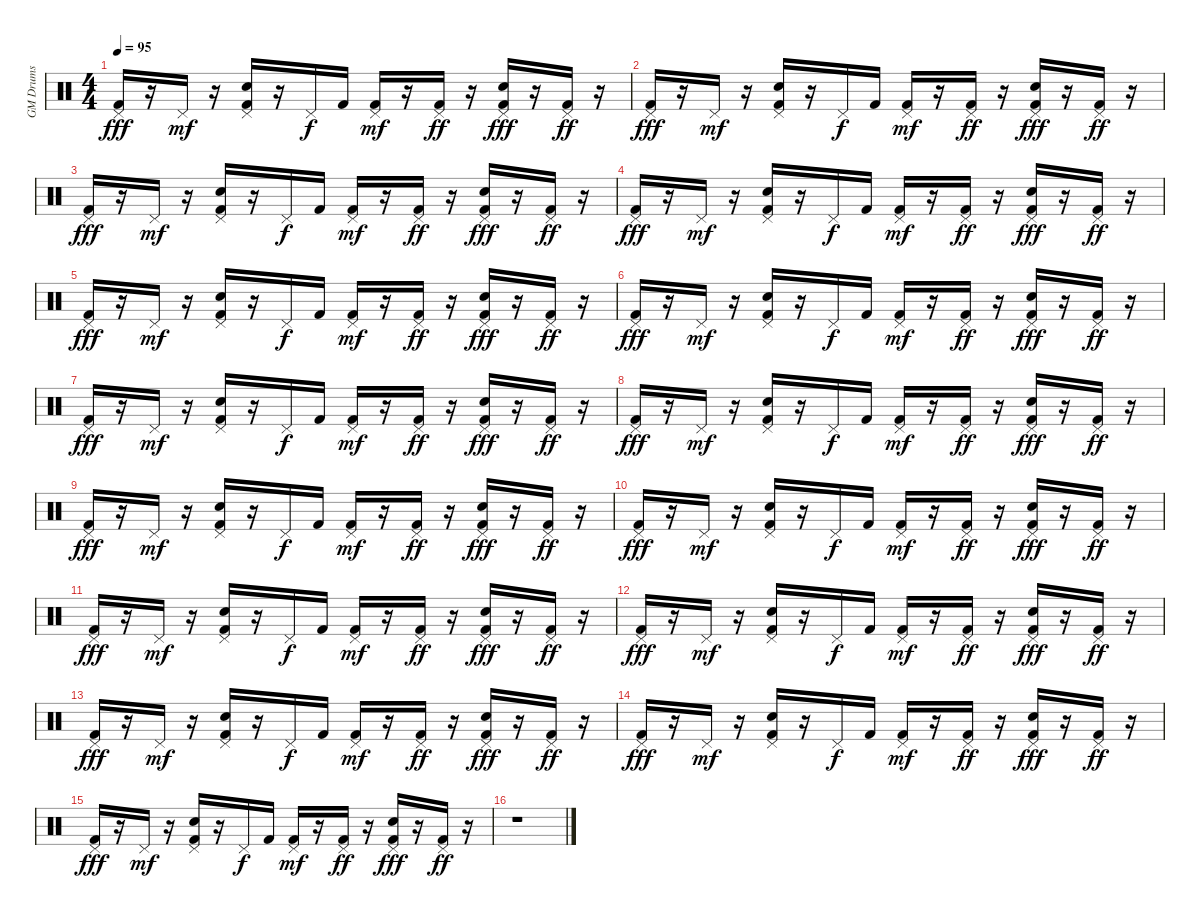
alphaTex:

\track ("GM Drums" "GM Drums") {instrument percussion}
\staff {score}
\articulation defaults
\ts (4 4)
\tempo 95
\clef neutral
\ks c
("Kick (hit) 2" "Pedal Hi-Hat (hit)").16{dy fff} r.16 "Pedal Hi-Hat (hit)".16{dy mf} r.16 ("Kick (hit) 2" "Hand Clap (hit)" "Pedal Hi-Hat (hit)").16 r.16 "Pedal Hi-Hat (hit)".16{dy f} "Kick (hit) 2".16 ("Kick (hit) 2" "Pedal Hi-Hat (hit)").16{dy mf} r.16 ("Kick (hit) 2" "Pedal Hi-Hat (hit)").16{dy ff} r.16 ("Kick (hit) 2" "Hand Clap (hit)" "Pedal Hi-Hat (hit)").16{dy fff} r.16 ("Kick (hit) 2" "Pedal Hi-Hat (hit)").16{dy ff} r.16 |
("Kick (hit) 2" "Pedal Hi-Hat (hit)").16{dy fff} r.16 "Pedal Hi-Hat (hit)".16{dy mf} r.16 ("Kick (hit) 2" "Hand Clap (hit)" "Pedal Hi-Hat (hit)").16 r.16 "Pedal Hi-Hat (hit)".16{dy f} "Kick (hit) 2".16 ("Kick (hit) 2" "Pedal Hi-Hat (hit)").16{dy mf} r.16 ("Kick (hit) 2" "Pedal Hi-Hat (hit)").16{dy ff} r.16 ("Kick (hit) 2" "Hand Clap (hit)" "Pedal Hi-Hat (hit)").16{dy fff} r.16 ("Kick (hit) 2" "Pedal Hi-Hat (hit)").16{dy ff} r.16 |
("Kick (hit) 2" "Pedal Hi-Hat (hit)").16{dy fff} r.16 "Pedal Hi-Hat (hit)".16{dy mf} r.16 ("Kick (hit) 2" "Hand Clap (hit)" "Pedal Hi-Hat (hit)").16 r.16 "Pedal Hi-Hat (hit)".16{dy f} "Kick (hit) 2".16 ("Kick (hit) 2" "Pedal Hi-Hat (hit)").16{dy mf} r.16 ("Kick (hit) 2" "Pedal Hi-Hat (hit)").16{dy ff} r.16 ("Kick (hit) 2" "Hand Clap (hit)" "Pedal Hi-Hat (hit)").16{dy fff} r.16 ("Kick (hit) 2" "Pedal Hi-Hat (hit)").16{dy ff} r.16 |
("Kick (hit) 2" "Pedal Hi-Hat (hit)").16{dy fff} r.16 "Pedal Hi-Hat (hit)".16{dy mf} r.16 ("Kick (hit) 2" "Hand Clap (hit)" "Pedal Hi-Hat (hit)").16 r.16 "Pedal Hi-Hat (hit)".16{dy f} "Kick (hit) 2".16 ("Kick (hit) 2" "Pedal Hi-Hat (hit)").16{dy mf} r.16 ("Kick (hit) 2" "Pedal Hi-Hat (hit)").16{dy ff} r.16 ("Kick (hit) 2" "Hand Clap (hit)" "Pedal Hi-Hat (hit)").16{dy fff} r.16 ("Kick (hit) 2" "Pedal Hi-Hat (hit)").16{dy ff} r.16 |
("Kick (hit) 2" "Pedal Hi-Hat (hit)").16{dy fff} r.16 "Pedal Hi-Hat (hit)".16{dy mf} r.16 ("Kick (hit) 2" "Hand Clap (hit)" "Pedal Hi-Hat (hit)").16 r.16 "Pedal Hi-Hat (hit)".16{dy f} "Kick (hit) 2".16 ("Kick (hit) 2" "Pedal Hi-Hat (hit)").16{dy mf} r.16 ("Kick (hit) 2" "Pedal Hi-Hat (hit)").16{dy ff} r.16 ("Kick (hit) 2" "Hand Clap (hit)" "Pedal Hi-Hat (hit)").16{dy fff} r.16 ("Kick (hit) 2" "Pedal Hi-Hat (hit)").16{dy ff} r.16 |
("Kick (hit) 2" "Pedal Hi-Hat (hit)").16{dy fff} r.16 "Pedal Hi-Hat (hit)".16{dy mf} r.16 ("Kick (hit) 2" "Hand Clap (hit)" "Pedal Hi-Hat (hit)").16 r.16 "Pedal Hi-Hat (hit)".16{dy f} "Kick (hit) 2".16 ("Kick (hit) 2" "Pedal Hi-Hat (hit)").16{dy mf} r.16 ("Kick (hit) 2" "Pedal Hi-Hat (hit)").16{dy ff} r.16 ("Kick (hit) 2" "Hand Clap (hit)" "Pedal Hi-Hat (hit)").16{dy fff} r.16 ("Kick (hit) 2" "Pedal Hi-Hat (hit)").16{dy ff} r.16 |
("Kick (hit) 2" "Pedal Hi-Hat (hit)").16{dy fff} r.16 "Pedal Hi-Hat (hit)".16{dy mf} r.16 ("Kick (hit) 2" "Hand Clap (hit)" "Pedal Hi-Hat (hit)").16 r.16 "Pedal Hi-Hat (hit)".16{dy f} "Kick (hit) 2".16 ("Kick (hit) 2" "Pedal Hi-Hat (hit)").16{dy mf} r.16 ("Kick (hit) 2" "Pedal Hi-Hat (hit)").16{dy ff} r.16 ("Kick (hit) 2" "Hand Clap (hit)" "Pedal Hi-Hat (hit)").16{dy fff} r.16 ("Kick (hit) 2" "Pedal Hi-Hat (hit)").16{dy ff} r.16 |
("Kick (hit) 2" "Pedal Hi-Hat (hit)").16{dy fff} r.16 "Pedal Hi-Hat (hit)".16{dy mf} r.16 ("Kick (hit) 2" "Hand Clap (hit)" "Pedal Hi-Hat (hit)").16 r.16 "Pedal Hi-Hat (hit)".16{dy f} "Kick (hit) 2".16 ("Kick (hit) 2" "Pedal Hi-Hat (hit)").16{dy mf} r.16 ("Kick (hit) 2" "Pedal Hi-Hat (hit)").16{dy ff} r.16 ("Kick (hit) 2" "Hand Clap (hit)" "Pedal Hi-Hat (hit)").16{dy fff} r.16 ("Kick (hit) 2" "Pedal Hi-Hat (hit)").16{dy ff} r.16 |
("Kick (hit) 2" "Pedal Hi-Hat (hit)").16{dy fff} r.16 "Pedal Hi-Hat (hit)".16{dy mf} r.16 ("Kick (hit) 2" "Hand Clap (hit)" "Pedal Hi-Hat (hit)").16 r.16 "Pedal Hi-Hat (hit)".16{dy f} "Kick (hit) 2".16 ("Kick (hit) 2" "Pedal Hi-Hat (hit)").16{dy mf} r.16 ("Kick (hit) 2" "Pedal Hi-Hat (hit)").16{dy ff} r.16 ("Kick (hit) 2" "Hand Clap (hit)" "Pedal Hi-Hat (hit)").16{dy fff} r.16 ("Kick (hit) 2" "Pedal Hi-Hat (hit)").16{dy ff} r.16 |
("Kick (hit) 2" "Pedal Hi-Hat (hit)").16{dy fff} r.16 "Pedal Hi-Hat (hit)".16{dy mf} r.16 ("Kick (hit) 2" "Hand Clap (hit)" "Pedal Hi-Hat (hit)").16 r.16 "Pedal Hi-Hat (hit)".16{dy f} "Kick (hit) 2".16 ("Kick (hit) 2" "Pedal Hi-Hat (hit)").16{dy mf} r.16 ("Kick (hit) 2" "Pedal Hi-Hat (hit)").16{dy ff} r.16 ("Kick (hit) 2" "Hand Clap (hit)" "Pedal Hi-Hat (hit)").16{dy fff} r.16 ("Kick (hit) 2" "Pedal Hi-Hat (hit)").16{dy ff} r.16 |
("Kick (hit) 2" "Pedal Hi-Hat (hit)").16{dy fff} r.16 "Pedal Hi-Hat (hit)".16{dy mf} r.16 ("Kick (hit) 2" "Hand Clap (hit)" "Pedal Hi-Hat (hit)").16 r.16 "Pedal Hi-Hat (hit)".16{dy f} "Kick (hit) 2".16 ("Kick (hit) 2" "Pedal Hi-Hat (hit)").16{dy mf} r.16 ("Kick (hit) 2" "Pedal Hi-Hat (hit)").16{dy ff} r.16 ("Kick (hit) 2" "Hand Clap (hit)" "Pedal Hi-Hat (hit)").16{dy fff} r.16 ("Kick (hit) 2" "Pedal Hi-Hat (hit)").16{dy ff} r.16 |
("Kick (hit) 2" "Pedal Hi-Hat (hit)").16{dy fff} r.16 "Pedal Hi-Hat (hit)".16{dy mf} r.16 ("Kick (hit) 2" "Hand Clap (hit)" "Pedal Hi-Hat (hit)").16 r.16 "Pedal Hi-Hat (hit)".16{dy f} "Kick (hit) 2".16 ("Kick (hit) 2" "Pedal Hi-Hat (hit)").16{dy mf} r.16 ("Kick (hit) 2" "Pedal Hi-Hat (hit)").16{dy ff} r.16 ("Kick (hit) 2" "Hand Clap (hit)" "Pedal Hi-Hat (hit)").16{dy fff} r.16 ("Kick (hit) 2" "Pedal Hi-Hat (hit)").16{dy ff} r.16 |
("Kick (hit) 2" "Pedal Hi-Hat (hit)").16{dy fff} r.16 "Pedal Hi-Hat (hit)".16{dy mf} r.16 ("Kick (hit) 2" "Hand Clap (hit)" "Pedal Hi-Hat (hit)").16 r.16 "Pedal Hi-Hat (hit)".16{dy f} "Kick (hit) 2".16 ("Kick (hit) 2" "Pedal Hi-Hat (hit)").16{dy mf} r.16 ("Kick (hit) 2" "Pedal Hi-Hat (hit)").16{dy ff} r.16 ("Kick (hit) 2" "Hand Clap (hit)" "Pedal Hi-Hat (hit)").16{dy fff} r.16 ("Kick (hit) 2" "Pedal Hi-Hat (hit)").16{dy ff} r.16 |
("Kick (hit) 2" "Pedal Hi-Hat (hit)").16{dy fff} r.16 "Pedal Hi-Hat (hit)".16{dy mf} r.16 ("Kick (hit) 2" "Hand Clap (hit)" "Pedal Hi-Hat (hit)").16 r.16 "Pedal Hi-Hat (hit)".16{dy f} "Kick (hit) 2".16 ("Kick (hit) 2" "Pedal Hi-Hat (hit)").16{dy mf} r.16 ("Kick (hit) 2" "Pedal Hi-Hat (hit)").16{dy ff} r.16 ("Kick (hit) 2" "Hand Clap (hit)" "Pedal Hi-Hat (hit)").16{dy fff} r.16 ("Kick (hit) 2" "Pedal Hi-Hat (hit)").16{dy ff} r.16 |
("Kick (hit) 2" "Pedal Hi-Hat (hit)").16{dy fff} r.16 "Pedal Hi-Hat (hit)".16{dy mf} r.16 ("Kick (hit) 2" "Hand Clap (hit)" "Pedal Hi-Hat (hit)").16 r.16 "Pedal Hi-Hat (hit)".16{dy f} "Kick (hit) 2".16 ("Kick (hit) 2" "Pedal Hi-Hat (hit)").16{dy mf} r.16 ("Kick (hit) 2" "Pedal Hi-Hat (hit)").16{dy ff} r.16 ("Kick (hit) 2" "Hand Clap (hit)" "Pedal Hi-Hat (hit)").16{dy fff} r.16 ("Kick (hit) 2" "Pedal Hi-Hat (hit)").16{dy ff} r.16 |
r.1
